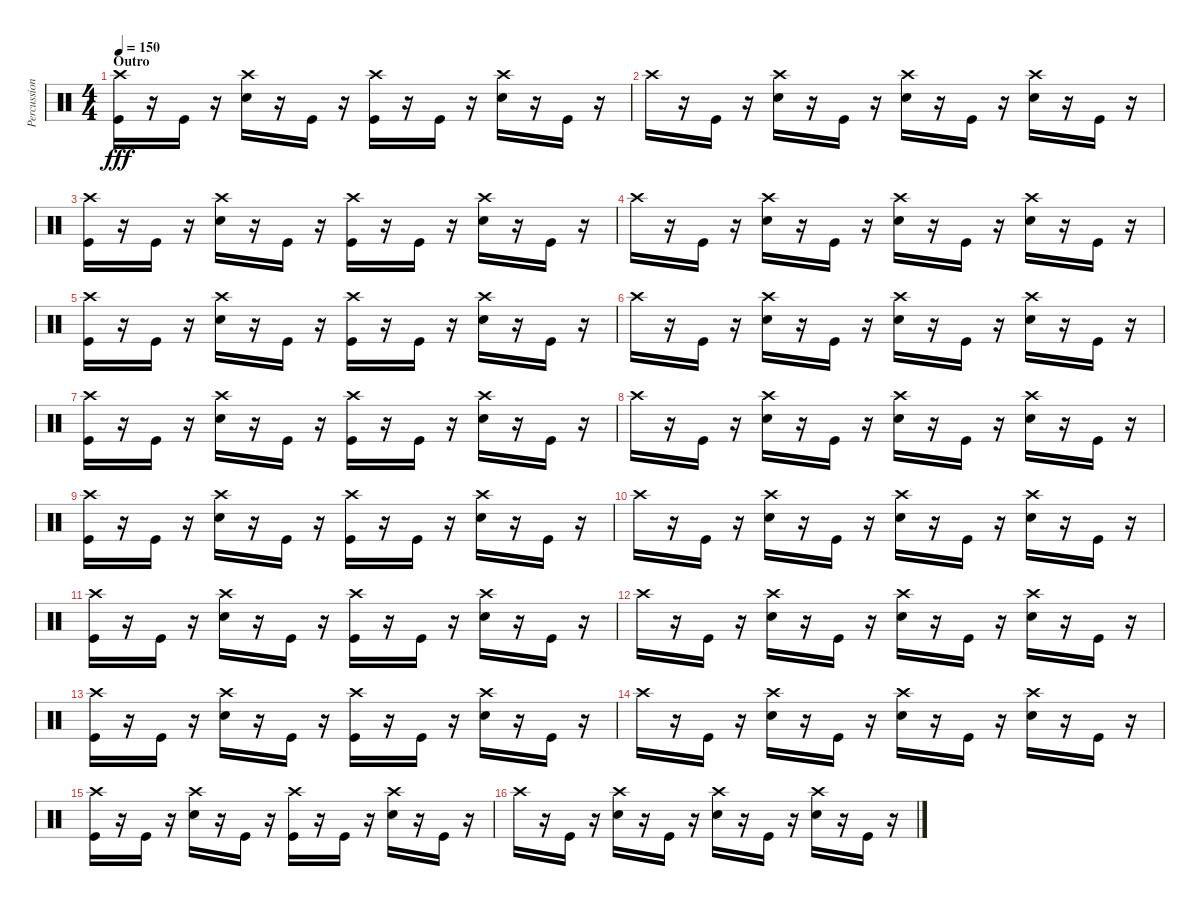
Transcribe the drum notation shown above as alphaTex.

\track ("Percussion" "Percussion") {instrument percussion}
\staff {score}
\articulation defaults
\ts (4 4)
\section ("" "Outro")
\tempo 150
\clef neutral
\ks c
("Crash high (hit)" "Kick (hit)").16{dy fff} r.16 "Kick (hit)".16 r.16 ("Crash high (hit)" "Snare (hit) 2").16 r.16 "Kick (hit)".16 r.16 ("Crash high (hit)" "Kick (hit)").16 r.16 "Kick (hit)".16 r.16 ("Crash high (hit)" "Snare (hit) 2").16 r.16 "Kick (hit)".16 r.16 |
"Crash high (hit)".16 r.16 "Kick (hit)".16 r.16 ("Crash high (hit)" "Snare (hit) 2").16 r.16 "Kick (hit)".16 r.16 ("Crash high (hit)" "Snare (hit) 2").16 r.16 "Kick (hit)".16 r.16 ("Crash high (hit)" "Snare (hit) 2").16 r.16 "Kick (hit)".16 r.16 |
("Crash high (hit)" "Kick (hit)").16 r.16 "Kick (hit)".16 r.16 ("Crash high (hit)" "Snare (hit) 2").16 r.16 "Kick (hit)".16 r.16 ("Crash high (hit)" "Kick (hit)").16 r.16 "Kick (hit)".16 r.16 ("Crash high (hit)" "Snare (hit) 2").16 r.16 "Kick (hit)".16 r.16 |
"Crash high (hit)".16 r.16 "Kick (hit)".16 r.16 ("Crash high (hit)" "Snare (hit) 2").16 r.16 "Kick (hit)".16 r.16 ("Crash high (hit)" "Snare (hit) 2").16 r.16 "Kick (hit)".16 r.16 ("Crash high (hit)" "Snare (hit) 2").16 r.16 "Kick (hit)".16 r.16 |
("Crash high (hit)" "Kick (hit)").16 r.16 "Kick (hit)".16 r.16 ("Crash high (hit)" "Snare (hit) 2").16 r.16 "Kick (hit)".16 r.16 ("Crash high (hit)" "Kick (hit)").16 r.16 "Kick (hit)".16 r.16 ("Crash high (hit)" "Snare (hit) 2").16 r.16 "Kick (hit)".16 r.16 |
"Crash high (hit)".16 r.16 "Kick (hit)".16 r.16 ("Crash high (hit)" "Snare (hit) 2").16 r.16 "Kick (hit)".16 r.16 ("Crash high (hit)" "Snare (hit) 2").16 r.16 "Kick (hit)".16 r.16 ("Crash high (hit)" "Snare (hit) 2").16 r.16 "Kick (hit)".16 r.16 |
("Crash high (hit)" "Kick (hit)").16 r.16 "Kick (hit)".16 r.16 ("Crash high (hit)" "Snare (hit) 2").16 r.16 "Kick (hit)".16 r.16 ("Crash high (hit)" "Kick (hit)").16 r.16 "Kick (hit)".16 r.16 ("Crash high (hit)" "Snare (hit) 2").16 r.16 "Kick (hit)".16 r.16 |
"Crash high (hit)".16 r.16 "Kick (hit)".16 r.16 ("Crash high (hit)" "Snare (hit) 2").16 r.16 "Kick (hit)".16 r.16 ("Crash high (hit)" "Snare (hit) 2").16 r.16 "Kick (hit)".16 r.16 ("Crash high (hit)" "Snare (hit) 2").16 r.16 "Kick (hit)".16 r.16 |
("Crash high (hit)" "Kick (hit)").16 r.16 "Kick (hit)".16 r.16 ("Crash high (hit)" "Snare (hit) 2").16 r.16 "Kick (hit)".16 r.16 ("Crash high (hit)" "Kick (hit)").16 r.16 "Kick (hit)".16 r.16 ("Crash high (hit)" "Snare (hit) 2").16 r.16 "Kick (hit)".16 r.16 |
"Crash high (hit)".16 r.16 "Kick (hit)".16 r.16 ("Crash high (hit)" "Snare (hit) 2").16 r.16 "Kick (hit)".16 r.16 ("Crash high (hit)" "Snare (hit) 2").16 r.16 "Kick (hit)".16 r.16 ("Crash high (hit)" "Snare (hit) 2").16 r.16 "Kick (hit)".16 r.16 |
("Crash high (hit)" "Kick (hit)").16 r.16 "Kick (hit)".16 r.16 ("Crash high (hit)" "Snare (hit) 2").16 r.16 "Kick (hit)".16 r.16 ("Crash high (hit)" "Kick (hit)").16 r.16 "Kick (hit)".16 r.16 ("Crash high (hit)" "Snare (hit) 2").16 r.16 "Kick (hit)".16 r.16 |
"Crash high (hit)".16 r.16 "Kick (hit)".16 r.16 ("Crash high (hit)" "Snare (hit) 2").16 r.16 "Kick (hit)".16 r.16 ("Crash high (hit)" "Snare (hit) 2").16 r.16 "Kick (hit)".16 r.16 ("Crash high (hit)" "Snare (hit) 2").16 r.16 "Kick (hit)".16 r.16 |
("Crash high (hit)" "Kick (hit)").16 r.16 "Kick (hit)".16 r.16 ("Crash high (hit)" "Snare (hit) 2").16 r.16 "Kick (hit)".16 r.16 ("Crash high (hit)" "Kick (hit)").16 r.16 "Kick (hit)".16 r.16 ("Crash high (hit)" "Snare (hit) 2").16 r.16 "Kick (hit)".16 r.16 |
"Crash high (hit)".16 r.16 "Kick (hit)".16 r.16 ("Crash high (hit)" "Snare (hit) 2").16 r.16 "Kick (hit)".16 r.16 ("Crash high (hit)" "Snare (hit) 2").16 r.16 "Kick (hit)".16 r.16 ("Crash high (hit)" "Snare (hit) 2").16 r.16 "Kick (hit)".16 r.16 |
("Crash high (hit)" "Kick (hit)").16 r.16 "Kick (hit)".16 r.16 ("Crash high (hit)" "Snare (hit) 2").16 r.16 "Kick (hit)".16 r.16 ("Crash high (hit)" "Kick (hit)").16 r.16 "Kick (hit)".16 r.16 ("Crash high (hit)" "Snare (hit) 2").16 r.16 "Kick (hit)".16 r.16 |
"Crash high (hit)".16 r.16 "Kick (hit)".16 r.16 ("Crash high (hit)" "Snare (hit) 2").16 r.16 "Kick (hit)".16 r.16 ("Crash high (hit)" "Snare (hit) 2").16 r.16 "Kick (hit)".16 r.16 ("Crash high (hit)" "Snare (hit) 2").16 r.16 "Kick (hit)".16 r.16
